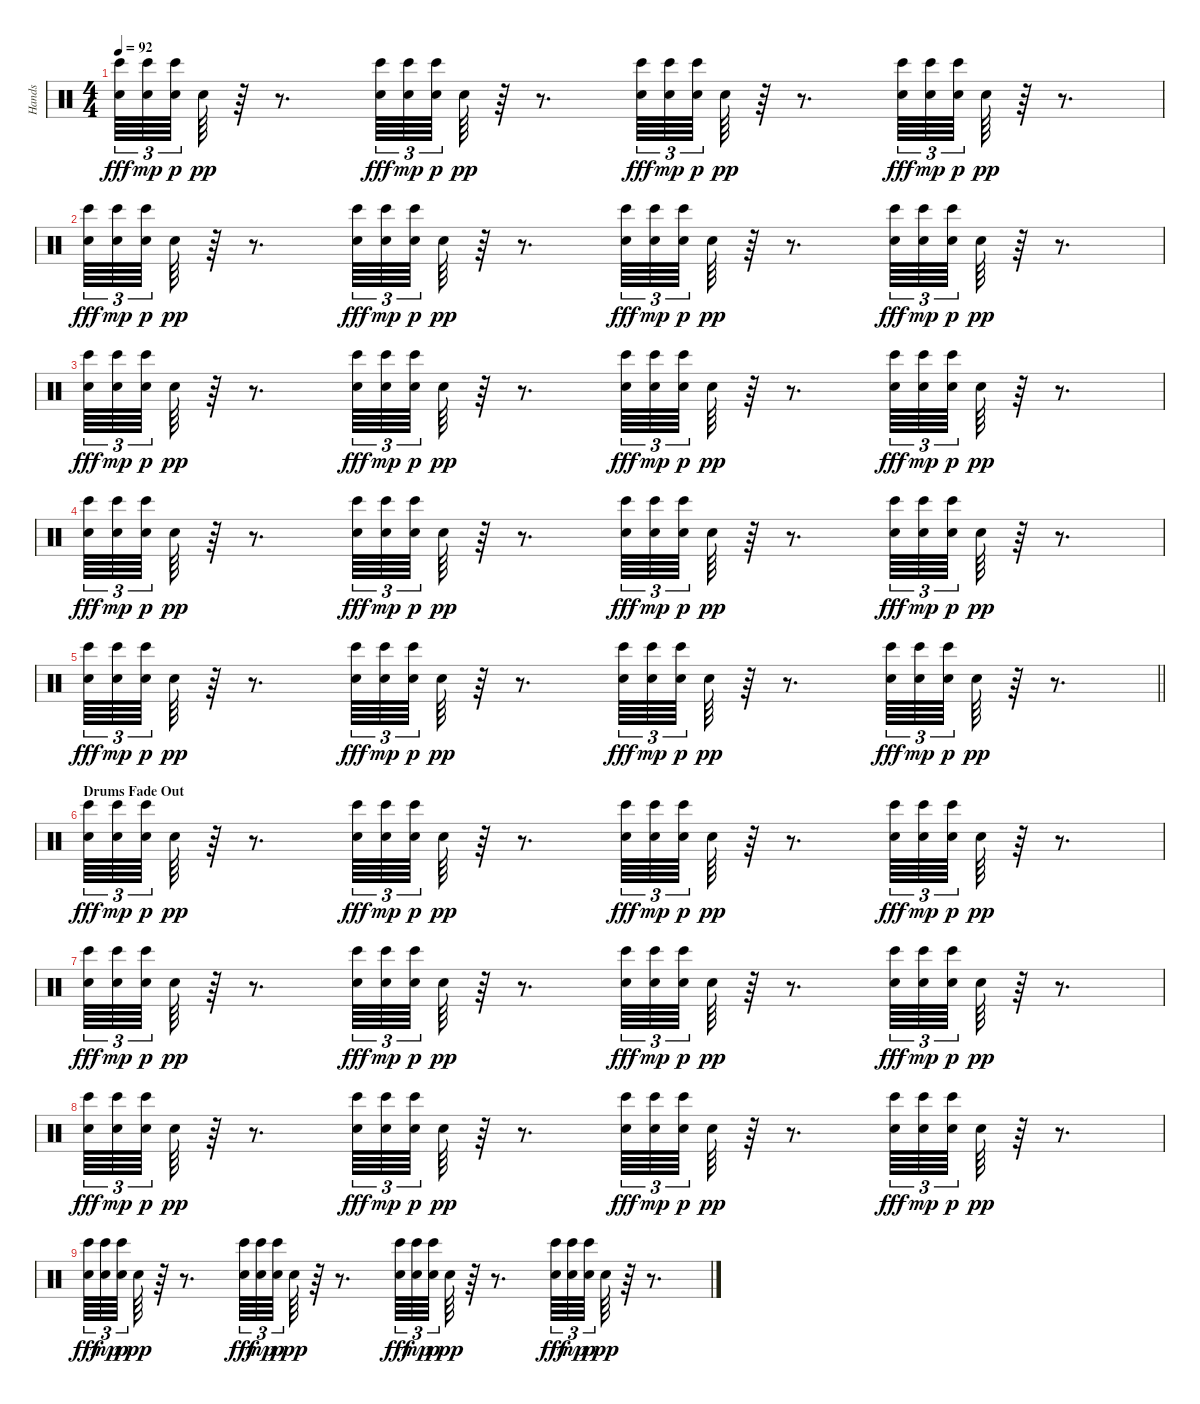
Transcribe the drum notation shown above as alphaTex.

\track ("Hands" "Hands") {instrument percussion}
\staff {score}
\articulation defaults
\ts (4 4)
\tempo 92
\clef neutral
\ks c
("Bongo High (hit)" "Hand Clap (hit)").64{tu (3 2) dy fff} ("Bongo High (hit)" "Hand Clap (hit)").64{tu (3 2) dy mp} ("Bongo High (hit)" "Hand Clap (hit)").64{tu (3 2) dy p} "Hand Clap (hit)".64{dy pp} r.64 r.8{d} ("Bongo High (hit)" "Hand Clap (hit)").64{tu (3 2) dy fff} ("Bongo High (hit)" "Hand Clap (hit)").64{tu (3 2) dy mp} ("Bongo High (hit)" "Hand Clap (hit)").64{tu (3 2) dy p} "Hand Clap (hit)".64{dy pp} r.64 r.8{d} ("Bongo High (hit)" "Hand Clap (hit)").64{tu (3 2) dy fff} ("Bongo High (hit)" "Hand Clap (hit)").64{tu (3 2) dy mp} ("Bongo High (hit)" "Hand Clap (hit)").64{tu (3 2) dy p} "Hand Clap (hit)".64{dy pp} r.64 r.8{d} ("Bongo High (hit)" "Hand Clap (hit)").64{tu (3 2) dy fff} ("Bongo High (hit)" "Hand Clap (hit)").64{tu (3 2) dy mp} ("Bongo High (hit)" "Hand Clap (hit)").64{tu (3 2) dy p} "Hand Clap (hit)".64{dy pp} r.64 r.8{d} |
("Bongo High (hit)" "Hand Clap (hit)").64{tu (3 2) dy fff} ("Bongo High (hit)" "Hand Clap (hit)").64{tu (3 2) dy mp} ("Bongo High (hit)" "Hand Clap (hit)").64{tu (3 2) dy p} "Hand Clap (hit)".64{dy pp} r.64 r.8{d} ("Bongo High (hit)" "Hand Clap (hit)").64{tu (3 2) dy fff} ("Bongo High (hit)" "Hand Clap (hit)").64{tu (3 2) dy mp} ("Bongo High (hit)" "Hand Clap (hit)").64{tu (3 2) dy p} "Hand Clap (hit)".64{dy pp} r.64 r.8{d} ("Bongo High (hit)" "Hand Clap (hit)").64{tu (3 2) dy fff} ("Bongo High (hit)" "Hand Clap (hit)").64{tu (3 2) dy mp} ("Bongo High (hit)" "Hand Clap (hit)").64{tu (3 2) dy p} "Hand Clap (hit)".64{dy pp} r.64 r.8{d} ("Bongo High (hit)" "Hand Clap (hit)").64{tu (3 2) dy fff} ("Bongo High (hit)" "Hand Clap (hit)").64{tu (3 2) dy mp} ("Bongo High (hit)" "Hand Clap (hit)").64{tu (3 2) dy p} "Hand Clap (hit)".64{dy pp} r.64 r.8{d} |
("Bongo High (hit)" "Hand Clap (hit)").64{tu (3 2) dy fff} ("Bongo High (hit)" "Hand Clap (hit)").64{tu (3 2) dy mp} ("Bongo High (hit)" "Hand Clap (hit)").64{tu (3 2) dy p} "Hand Clap (hit)".64{dy pp} r.64 r.8{d} ("Bongo High (hit)" "Hand Clap (hit)").64{tu (3 2) dy fff} ("Bongo High (hit)" "Hand Clap (hit)").64{tu (3 2) dy mp} ("Bongo High (hit)" "Hand Clap (hit)").64{tu (3 2) dy p} "Hand Clap (hit)".64{dy pp} r.64 r.8{d} ("Bongo High (hit)" "Hand Clap (hit)").64{tu (3 2) dy fff} ("Bongo High (hit)" "Hand Clap (hit)").64{tu (3 2) dy mp} ("Bongo High (hit)" "Hand Clap (hit)").64{tu (3 2) dy p} "Hand Clap (hit)".64{dy pp} r.64 r.8{d} ("Bongo High (hit)" "Hand Clap (hit)").64{tu (3 2) dy fff} ("Bongo High (hit)" "Hand Clap (hit)").64{tu (3 2) dy mp} ("Bongo High (hit)" "Hand Clap (hit)").64{tu (3 2) dy p} "Hand Clap (hit)".64{dy pp} r.64 r.8{d} |
("Bongo High (hit)" "Hand Clap (hit)").64{tu (3 2) dy fff} ("Bongo High (hit)" "Hand Clap (hit)").64{tu (3 2) dy mp} ("Bongo High (hit)" "Hand Clap (hit)").64{tu (3 2) dy p} "Hand Clap (hit)".64{dy pp} r.64 r.8{d} ("Bongo High (hit)" "Hand Clap (hit)").64{tu (3 2) dy fff} ("Bongo High (hit)" "Hand Clap (hit)").64{tu (3 2) dy mp} ("Bongo High (hit)" "Hand Clap (hit)").64{tu (3 2) dy p} "Hand Clap (hit)".64{dy pp} r.64 r.8{d} ("Bongo High (hit)" "Hand Clap (hit)").64{tu (3 2) dy fff} ("Bongo High (hit)" "Hand Clap (hit)").64{tu (3 2) dy mp} ("Bongo High (hit)" "Hand Clap (hit)").64{tu (3 2) dy p} "Hand Clap (hit)".64{dy pp} r.64 r.8{d} ("Bongo High (hit)" "Hand Clap (hit)").64{tu (3 2) dy fff} ("Bongo High (hit)" "Hand Clap (hit)").64{tu (3 2) dy mp} ("Bongo High (hit)" "Hand Clap (hit)").64{tu (3 2) dy p} "Hand Clap (hit)".64{dy pp} r.64 r.8{d} |
\barLineRight lightlight
("Bongo High (hit)" "Hand Clap (hit)").64{tu (3 2) dy fff} ("Bongo High (hit)" "Hand Clap (hit)").64{tu (3 2) dy mp} ("Bongo High (hit)" "Hand Clap (hit)").64{tu (3 2) dy p} "Hand Clap (hit)".64{dy pp} r.64 r.8{d} ("Bongo High (hit)" "Hand Clap (hit)").64{tu (3 2) dy fff} ("Bongo High (hit)" "Hand Clap (hit)").64{tu (3 2) dy mp} ("Bongo High (hit)" "Hand Clap (hit)").64{tu (3 2) dy p} "Hand Clap (hit)".64{dy pp} r.64 r.8{d} ("Bongo High (hit)" "Hand Clap (hit)").64{tu (3 2) dy fff} ("Bongo High (hit)" "Hand Clap (hit)").64{tu (3 2) dy mp} ("Bongo High (hit)" "Hand Clap (hit)").64{tu (3 2) dy p} "Hand Clap (hit)".64{dy pp} r.64 r.8{d} ("Bongo High (hit)" "Hand Clap (hit)").64{tu (3 2) dy fff} ("Bongo High (hit)" "Hand Clap (hit)").64{tu (3 2) dy mp} ("Bongo High (hit)" "Hand Clap (hit)").64{tu (3 2) dy p} "Hand Clap (hit)".64{dy pp} r.64 r.8{d} |
\section ("" "Drums Fade Out")
("Bongo High (hit)" "Hand Clap (hit)").64{tu (3 2) dy fff} ("Bongo High (hit)" "Hand Clap (hit)").64{tu (3 2) dy mp} ("Bongo High (hit)" "Hand Clap (hit)").64{tu (3 2) dy p} "Hand Clap (hit)".64{dy pp} r.64 r.8{d} ("Bongo High (hit)" "Hand Clap (hit)").64{tu (3 2) dy fff} ("Bongo High (hit)" "Hand Clap (hit)").64{tu (3 2) dy mp} ("Bongo High (hit)" "Hand Clap (hit)").64{tu (3 2) dy p} "Hand Clap (hit)".64{dy pp} r.64 r.8{d} ("Bongo High (hit)" "Hand Clap (hit)").64{tu (3 2) dy fff} ("Bongo High (hit)" "Hand Clap (hit)").64{tu (3 2) dy mp} ("Bongo High (hit)" "Hand Clap (hit)").64{tu (3 2) dy p} "Hand Clap (hit)".64{dy pp} r.64 r.8{d} ("Bongo High (hit)" "Hand Clap (hit)").64{tu (3 2) dy fff} ("Bongo High (hit)" "Hand Clap (hit)").64{tu (3 2) dy mp} ("Bongo High (hit)" "Hand Clap (hit)").64{tu (3 2) dy p} "Hand Clap (hit)".64{dy pp} r.64 r.8{d} |
("Bongo High (hit)" "Hand Clap (hit)").64{tu (3 2) dy fff} ("Bongo High (hit)" "Hand Clap (hit)").64{tu (3 2) dy mp} ("Bongo High (hit)" "Hand Clap (hit)").64{tu (3 2) dy p} "Hand Clap (hit)".64{dy pp} r.64 r.8{d} ("Bongo High (hit)" "Hand Clap (hit)").64{tu (3 2) dy fff} ("Bongo High (hit)" "Hand Clap (hit)").64{tu (3 2) dy mp} ("Bongo High (hit)" "Hand Clap (hit)").64{tu (3 2) dy p} "Hand Clap (hit)".64{dy pp} r.64 r.8{d} ("Bongo High (hit)" "Hand Clap (hit)").64{tu (3 2) dy fff} ("Bongo High (hit)" "Hand Clap (hit)").64{tu (3 2) dy mp} ("Bongo High (hit)" "Hand Clap (hit)").64{tu (3 2) dy p} "Hand Clap (hit)".64{dy pp} r.64 r.8{d} ("Bongo High (hit)" "Hand Clap (hit)").64{tu (3 2) dy fff} ("Bongo High (hit)" "Hand Clap (hit)").64{tu (3 2) dy mp} ("Bongo High (hit)" "Hand Clap (hit)").64{tu (3 2) dy p} "Hand Clap (hit)".64{dy pp} r.64 r.8{d} |
("Bongo High (hit)" "Hand Clap (hit)").64{tu (3 2) dy fff} ("Bongo High (hit)" "Hand Clap (hit)").64{tu (3 2) dy mp} ("Bongo High (hit)" "Hand Clap (hit)").64{tu (3 2) dy p} "Hand Clap (hit)".64{dy pp} r.64 r.8{d} ("Bongo High (hit)" "Hand Clap (hit)").64{tu (3 2) dy fff} ("Bongo High (hit)" "Hand Clap (hit)").64{tu (3 2) dy mp} ("Bongo High (hit)" "Hand Clap (hit)").64{tu (3 2) dy p} "Hand Clap (hit)".64{dy pp} r.64 r.8{d} ("Bongo High (hit)" "Hand Clap (hit)").64{tu (3 2) dy fff} ("Bongo High (hit)" "Hand Clap (hit)").64{tu (3 2) dy mp} ("Bongo High (hit)" "Hand Clap (hit)").64{tu (3 2) dy p} "Hand Clap (hit)".64{dy pp} r.64 r.8{d} ("Bongo High (hit)" "Hand Clap (hit)").64{tu (3 2) dy fff} ("Bongo High (hit)" "Hand Clap (hit)").64{tu (3 2) dy mp} ("Bongo High (hit)" "Hand Clap (hit)").64{tu (3 2) dy p} "Hand Clap (hit)".64{dy pp} r.64 r.8{d} |
("Bongo High (hit)" "Hand Clap (hit)").64{tu (3 2) dy fff} ("Bongo High (hit)" "Hand Clap (hit)").64{tu (3 2) dy mp} ("Bongo High (hit)" "Hand Clap (hit)").64{tu (3 2) dy p} "Hand Clap (hit)".64{dy pp} r.64 r.8{d} ("Bongo High (hit)" "Hand Clap (hit)").64{tu (3 2) dy fff} ("Bongo High (hit)" "Hand Clap (hit)").64{tu (3 2) dy mp} ("Bongo High (hit)" "Hand Clap (hit)").64{tu (3 2) dy p} "Hand Clap (hit)".64{dy pp} r.64 r.8{d} ("Bongo High (hit)" "Hand Clap (hit)").64{tu (3 2) dy fff} ("Bongo High (hit)" "Hand Clap (hit)").64{tu (3 2) dy mp} ("Bongo High (hit)" "Hand Clap (hit)").64{tu (3 2) dy p} "Hand Clap (hit)".64{dy pp} r.64 r.8{d} ("Bongo High (hit)" "Hand Clap (hit)").64{tu (3 2) dy fff} ("Bongo High (hit)" "Hand Clap (hit)").64{tu (3 2) dy mp} ("Bongo High (hit)" "Hand Clap (hit)").64{tu (3 2) dy p} "Hand Clap (hit)".64{dy pp} r.64 r.8{d}
